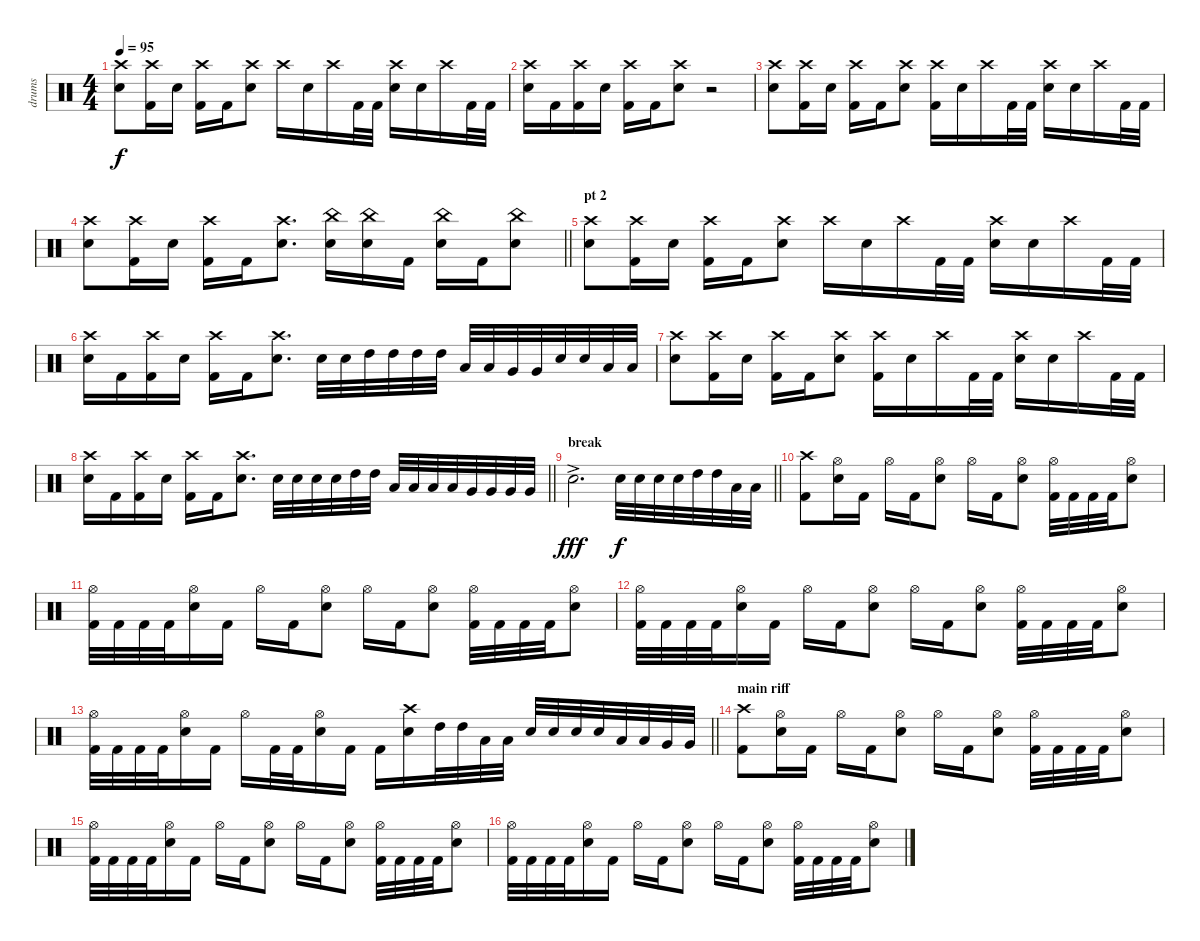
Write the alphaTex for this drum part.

\track ("drums" "drums") {instrument percussion}
\staff {score}
\articulation defaults
\ts (4 4)
\section ("" "")
\tempo 95
\clef neutral
\ks c
("Crash high (hit)" "Electric Snare (hit)").8{dy f} ("Crash high (hit)" "Kick (hit) 2").16 "Electric Snare (hit)".16 ("Crash high (hit)" "Kick (hit) 2").16 "Kick (hit) 2".16 ("Crash high (hit)" "Electric Snare (hit)").8 "Crash high (hit)".16 "Electric Snare (hit)".16 "Crash high (hit)".16 "Kick (hit) 2".32 "Kick (hit) 2".32 ("Crash high (hit)" "Electric Snare (hit)").16 "Electric Snare (hit)".16 "Crash high (hit)".16 "Kick (hit) 2".32 "Kick (hit) 2".32 |
("Crash high (hit)" "Electric Snare (hit)").16 "Kick (hit) 2".16 ("Crash high (hit)" "Kick (hit) 2").16 "Electric Snare (hit)".16 ("Crash high (hit)" "Kick (hit) 2").16 "Kick (hit) 2".16 ("Crash high (hit)" "Electric Snare (hit)").8 r.2 |
("Crash high (hit)" "Electric Snare (hit)").8 ("Crash high (hit)" "Kick (hit) 2").16 "Electric Snare (hit)".16 ("Crash high (hit)" "Kick (hit) 2").16 "Kick (hit) 2".16 ("Crash high (hit)" "Electric Snare (hit)").8 ("Crash high (hit)" "Kick (hit) 2").16 "Electric Snare (hit)".16 "Crash high (hit)".16 "Kick (hit) 2".32 "Kick (hit) 2".32 ("Crash high (hit)" "Electric Snare (hit)").16 "Electric Snare (hit)".16 "Crash high (hit)".16 "Kick (hit) 2".32 "Kick (hit) 2".32 |
\barLineRight lightlight
("Crash high (hit)" "Electric Snare (hit)").8 ("Crash high (hit)" "Kick (hit) 2").16 "Electric Snare (hit)".16 ("Crash high (hit)" "Kick (hit) 2").16 "Kick (hit) 2".16 ("Crash high (hit)" "Electric Snare (hit)").8{d} ("China (hit)" "Electric Snare (hit)").16 ("China (hit)" "Electric Snare (hit)").16 "Kick (hit) 2".16 ("China (hit)" "Electric Snare (hit)").16 "Kick (hit) 2".16 ("China (hit)" "Electric Snare (hit)").8 |
\section ("" "pt 2")
("Crash high (hit)" "Electric Snare (hit)").8 ("Crash high (hit)" "Kick (hit) 2").16 "Electric Snare (hit)".16 ("Crash high (hit)" "Kick (hit) 2").16 "Kick (hit) 2".16 ("Crash high (hit)" "Electric Snare (hit)").8 "Crash high (hit)".16 "Electric Snare (hit)".16 "Crash high (hit)".16 "Kick (hit) 2".32 "Kick (hit) 2".32 ("Crash high (hit)" "Electric Snare (hit)").16 "Electric Snare (hit)".16 "Crash high (hit)".16 "Kick (hit) 2".32 "Kick (hit) 2".32 |
("Crash high (hit)" "Electric Snare (hit)").16 "Kick (hit) 2".16 ("Crash high (hit)" "Kick (hit) 2").16 "Electric Snare (hit)".16 ("Crash high (hit)" "Kick (hit) 2").16 "Kick (hit) 2".16 ("Crash high (hit)" "Electric Snare (hit)").8{d} "Electric Snare (hit)".32 "Electric Snare (hit)".32 "High Tom (hit)".32 "High Tom (hit)".32 "High Tom (hit)".32 "High Tom (hit)".32 "Low Tom (hit)".32 "Low Tom (hit)".32 "Very Low Tom (hit)".32 "Very Low Tom (hit)".32 "Electric Snare (hit)".32 "Electric Snare (hit)".32 "Low Tom (hit)".32 "Low Tom (hit)".32 |
("Crash high (hit)" "Electric Snare (hit)").8 ("Crash high (hit)" "Kick (hit) 2").16 "Electric Snare (hit)".16 ("Crash high (hit)" "Kick (hit) 2").16 "Kick (hit) 2".16 ("Crash high (hit)" "Electric Snare (hit)").8 ("Crash high (hit)" "Kick (hit) 2").16 "Electric Snare (hit)".16 "Crash high (hit)".16 "Kick (hit) 2".32 "Kick (hit) 2".32 ("Crash high (hit)" "Electric Snare (hit)").16 "Electric Snare (hit)".16 "Crash high (hit)".16 "Kick (hit) 2".32 "Kick (hit) 2".32 |
\barLineRight lightlight
("Crash high (hit)" "Electric Snare (hit)").16 "Kick (hit) 2".16 ("Crash high (hit)" "Kick (hit) 2").16 "Electric Snare (hit)".16 ("Crash high (hit)" "Kick (hit) 2").16 "Kick (hit) 2".16 ("Crash high (hit)" "Electric Snare (hit)").8{d} "Electric Snare (hit)".32 "Electric Snare (hit)".32 "Electric Snare (hit)".32 "Electric Snare (hit)".32 "High Tom (hit)".32 "High Tom (hit)".32 "Low Tom (hit)".32 "Low Tom (hit)".32 "Low Tom (hit)".32 "Low Tom (hit)".32 "Very Low Tom (hit)".32 "Very Low Tom (hit)".32 "Very Low Tom (hit)".32 "Very Low Tom (hit)".32 |
\section ("" "break")
\barLineRight lightlight "Electric Snare (hit)"{ac}.2{d dy fff} "Electric Snare (hit)".32{dy f} "Electric Snare (hit)".32 "Electric Snare (hit)".32 "Electric Snare (hit)".32 "High Tom (hit)".32 "High Tom (hit)".32 "Low Tom (hit)".32 "Low Tom (hit)".32
|
\section ("" "")
("Crash high (hit)" "Kick (hit) 2").8 ("Hi-Hat (open)" "Electric Snare (hit)").16 "Kick (hit) 2".16 "Hi-Hat (open)".16 "Kick (hit) 2".16 ("Hi-Hat (open)" "Electric Snare (hit)").8 "Hi-Hat (open)".16 "Kick (hit) 2".16 ("Hi-Hat (open)" "Electric Snare (hit)").8 ("Hi-Hat (open)" "Kick (hit) 2").32 "Kick (hit) 2".32 "Kick (hit) 2".32 "Kick (hit) 2".32 ("Hi-Hat (open)" "Electric Snare (hit)").8 |
("Hi-Hat (open)" "Kick (hit) 2").32 "Kick (hit) 2".32 "Kick (hit) 2".32 "Kick (hit) 2".32 ("Hi-Hat (open)" "Electric Snare (hit)").16 "Kick (hit) 2".16 "Hi-Hat (open)".16 "Kick (hit) 2".16 ("Hi-Hat (open)" "Electric Snare (hit)").8 "Hi-Hat (open)".16 "Kick (hit) 2".16 ("Hi-Hat (open)" "Electric Snare (hit)").8 ("Hi-Hat (open)" "Kick (hit) 2").32 "Kick (hit) 2".32 "Kick (hit) 2".32 "Kick (hit) 2".32 ("Hi-Hat (open)" "Electric Snare (hit)").8 |
("Hi-Hat (open)" "Kick (hit) 2").32 "Kick (hit) 2".32 "Kick (hit) 2".32 "Kick (hit) 2".32 ("Hi-Hat (open)" "Electric Snare (hit)").16 "Kick (hit) 2".16 "Hi-Hat (open)".16 "Kick (hit) 2".16 ("Hi-Hat (open)" "Electric Snare (hit)").8 "Hi-Hat (open)".16 "Kick (hit) 2".16 ("Hi-Hat (open)" "Electric Snare (hit)").8 ("Hi-Hat (open)" "Kick (hit) 2").32 "Kick (hit) 2".32 "Kick (hit) 2".32 "Kick (hit) 2".32 ("Hi-Hat (open)" "Electric Snare (hit)").8 |
\barLineRight lightlight
("Hi-Hat (open)" "Kick (hit) 2").32 "Kick (hit) 2".32 "Kick (hit) 2".32 "Kick (hit) 2".32 ("Hi-Hat (open)" "Electric Snare (hit)").16 "Kick (hit) 2".16 "Hi-Hat (open)".16 "Kick (hit) 2".32 "Kick (hit) 2".32 ("Hi-Hat (open)" "Electric Snare (hit)").16 "Kick (hit) 2".16 "Kick (hit) 2".16 ("Crash high (hit)" "Electric Snare (hit)").16 "High Tom (hit)".32 "High Tom (hit)".32 "Low Tom (hit)".32 "Low Tom (hit)".32 "Electric Snare (hit)".32 "Electric Snare (hit)".32 "Electric Snare (hit)".32 "Electric Snare (hit)".32 "Low Tom (hit)".32 "Low Tom (hit)".32 "Very Low Tom (hit)".32 "Very Low Tom (hit)".32 |
\section ("" "main riff")
("Crash high (hit)" "Kick (hit) 2").8 ("Hi-Hat (open)" "Electric Snare (hit)").16 "Kick (hit) 2".16 "Hi-Hat (open)".16 "Kick (hit) 2".16 ("Hi-Hat (open)" "Electric Snare (hit)").8 "Hi-Hat (open)".16 "Kick (hit) 2".16 ("Hi-Hat (open)" "Electric Snare (hit)").8 ("Hi-Hat (open)" "Kick (hit) 2").32 "Kick (hit) 2".32 "Kick (hit) 2".32 "Kick (hit) 2".32 ("Hi-Hat (open)" "Electric Snare (hit)").8 |
("Hi-Hat (open)" "Kick (hit) 2").32 "Kick (hit) 2".32 "Kick (hit) 2".32 "Kick (hit) 2".32 ("Hi-Hat (open)" "Electric Snare (hit)").16 "Kick (hit) 2".16 "Hi-Hat (open)".16 "Kick (hit) 2".16 ("Hi-Hat (open)" "Electric Snare (hit)").8 "Hi-Hat (open)".16 "Kick (hit) 2".16 ("Hi-Hat (open)" "Electric Snare (hit)").8 ("Hi-Hat (open)" "Kick (hit) 2").32 "Kick (hit) 2".32 "Kick (hit) 2".32 "Kick (hit) 2".32 ("Hi-Hat (open)" "Electric Snare (hit)").8 |
("Hi-Hat (open)" "Kick (hit) 2").32 "Kick (hit) 2".32 "Kick (hit) 2".32 "Kick (hit) 2".32 ("Hi-Hat (open)" "Electric Snare (hit)").16 "Kick (hit) 2".16 "Hi-Hat (open)".16 "Kick (hit) 2".16 ("Hi-Hat (open)" "Electric Snare (hit)").8 "Hi-Hat (open)".16 "Kick (hit) 2".16 ("Hi-Hat (open)" "Electric Snare (hit)").8 ("Hi-Hat (open)" "Kick (hit) 2").32 "Kick (hit) 2".32 "Kick (hit) 2".32 "Kick (hit) 2".32 ("Hi-Hat (open)" "Electric Snare (hit)").8
